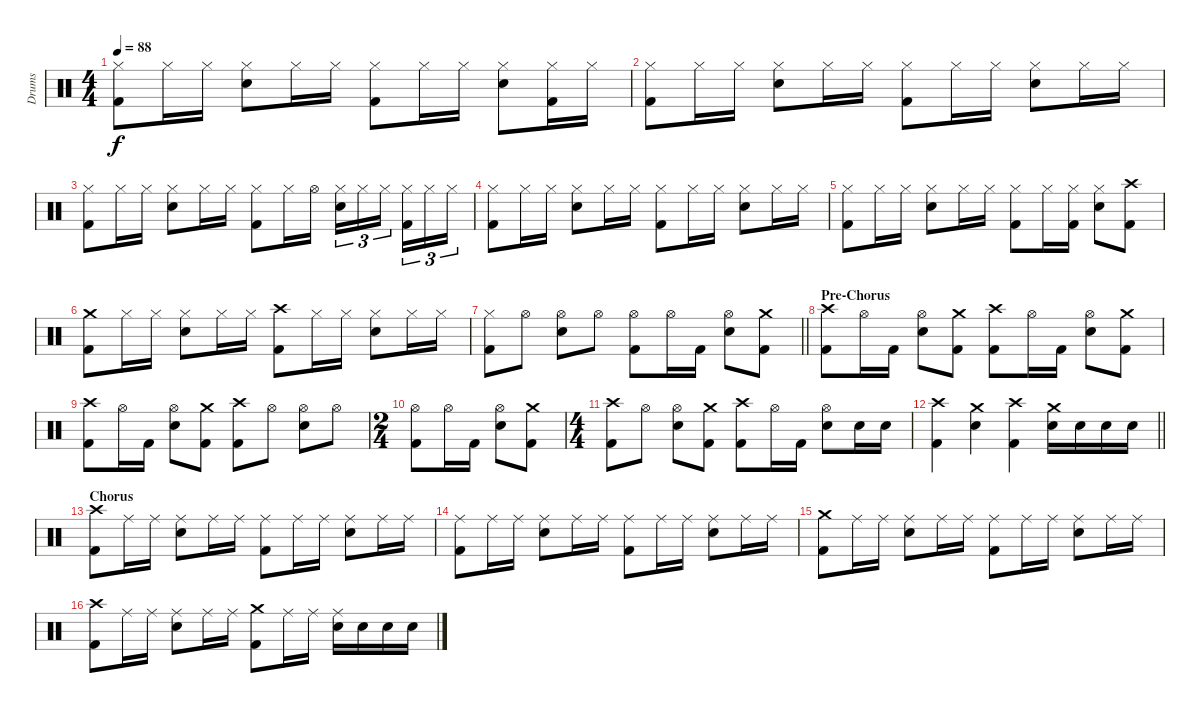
\track ("Drums" "Drums") {instrument percussion}
\staff {score}
\articulation defaults
\ts (4 4)
\tempo 88
\clef neutral
\ks c
("Hi-Hat (closed)" "Kick (hit) 2").8{dy f} "Hi-Hat (closed)".16 "Hi-Hat (closed)".16 ("Hi-Hat (closed)" "Snare (hit) 2").8 "Hi-Hat (closed)".16 "Hi-Hat (closed)".16 ("Hi-Hat (closed)" "Kick (hit) 2").8 "Hi-Hat (closed)".16 "Hi-Hat (closed)".16 ("Hi-Hat (closed)" "Snare (hit) 2").8 ("Hi-Hat (closed)" "Kick (hit) 2").16 "Hi-Hat (closed)".16 |
("Hi-Hat (closed)" "Kick (hit) 2").8 "Hi-Hat (closed)".16 "Hi-Hat (closed)".16 ("Hi-Hat (closed)" "Snare (hit) 2").8 "Hi-Hat (closed)".16 "Hi-Hat (closed)".16 ("Hi-Hat (closed)" "Kick (hit) 2").8 "Hi-Hat (closed)".16 "Hi-Hat (closed)".16 ("Hi-Hat (closed)" "Snare (hit) 2").8 "Hi-Hat (closed)".16 "Hi-Hat (closed)".16 |
("Hi-Hat (closed)" "Kick (hit) 2").8 "Hi-Hat (closed)".16 "Hi-Hat (closed)".16 ("Hi-Hat (closed)" "Snare (hit) 2").8 "Hi-Hat (closed)".16 "Hi-Hat (closed)".16 ("Hi-Hat (closed)" "Kick (hit) 2").8 "Hi-Hat (closed)".16 "Hi-Hat (open)".16 ("Hi-Hat (closed)" "Snare (hit) 2").16{tu (3 2)} "Hi-Hat (closed)".16{tu (3 2)} "Hi-Hat (closed)".16{tu (3 2) beam splitsecondary} ("Hi-Hat (closed)" "Kick (hit) 2").16{tu (3 2)} "Hi-Hat (closed)".16{tu (3 2)} "Hi-Hat (closed)".16{tu (3 2)} |
("Hi-Hat (closed)" "Kick (hit) 2").8 "Hi-Hat (closed)".16 "Hi-Hat (closed)".16 ("Hi-Hat (closed)" "Snare (hit) 2").8 "Hi-Hat (closed)".16 "Hi-Hat (closed)".16 ("Hi-Hat (closed)" "Kick (hit) 2").8 "Hi-Hat (closed)".16 "Hi-Hat (closed)".16 ("Hi-Hat (closed)" "Snare (hit) 2").8 "Hi-Hat (closed)".16 "Hi-Hat (closed)".16 |
("Hi-Hat (closed)" "Kick (hit) 2").8 "Hi-Hat (closed)".16 "Hi-Hat (closed)".16 ("Hi-Hat (closed)" "Snare (hit) 2").8 "Hi-Hat (closed)".16 "Hi-Hat (closed)".16 ("Hi-Hat (closed)" "Kick (hit) 2").8 "Hi-Hat (closed)".16 ("Hi-Hat (closed)" "Kick (hit) 2").16 ("Hi-Hat (closed)" "Snare (hit) 2").8 ("Crash high (hit)" "Kick (hit) 2").8 |
("Crash medium (hit)" "Kick (hit) 2").8 "Hi-Hat (closed)".16 "Hi-Hat (closed)".16 ("Hi-Hat (closed)" "Snare (hit) 2").8 "Hi-Hat (closed)".16 "Hi-Hat (closed)".16 ("Crash high (hit)" "Kick (hit) 2").8 "Hi-Hat (closed)".16 "Hi-Hat (closed)".16 ("Hi-Hat (closed)" "Snare (hit) 2").8 "Hi-Hat (closed)".16 "Hi-Hat (closed)".16 |
\barLineRight lightlight
("Hi-Hat (closed)" "Kick (hit) 2").8 "Hi-Hat (open)".8 ("Hi-Hat (open)" "Snare (hit) 2").8 "Hi-Hat (open)".8 ("Hi-Hat (open)" "Kick (hit) 2").8 "Hi-Hat (open)".16 "Kick (hit) 2".16 ("Hi-Hat (open)" "Snare (hit) 2").8 ("Crash medium (hit)" "Kick (hit) 2").8 |
\section ("" "Pre-Chorus")
("Crash high (hit)" "Kick (hit) 2").8 "Hi-Hat (open)".16 "Kick (hit) 2".16 ("Hi-Hat (open)" "Snare (hit) 2").8 ("Crash medium (hit)" "Kick (hit) 2").8 ("Crash high (hit)" "Kick (hit) 2").8 "Hi-Hat (open)".16 "Kick (hit) 2".16 ("Hi-Hat (open)" "Snare (hit) 2").8 ("Crash medium (hit)" "Kick (hit) 2").8 |
("Crash high (hit)" "Kick (hit) 2").8 "Hi-Hat (open)".16 "Kick (hit) 2".16 ("Hi-Hat (open)" "Snare (hit) 2").8 ("Crash medium (hit)" "Kick (hit) 2").8 ("Crash high (hit)" "Kick (hit) 2").8 "Hi-Hat (open)".8 ("Hi-Hat (open)" "Snare (hit) 2").8 "Hi-Hat (open)".8 |
\ts (2 4)
("Hi-Hat (open)" "Kick (hit) 2").8 "Hi-Hat (open)".16 "Kick (hit) 2".16 ("Hi-Hat (open)" "Snare (hit) 2").8 ("Crash medium (hit)" "Kick (hit) 2").8 |
\ts (4 4)
("Crash high (hit)" "Kick (hit) 2").8 "Hi-Hat (open)".8 ("Hi-Hat (open)" "Snare (hit) 2").8 ("Crash medium (hit)" "Kick (hit) 2").8 ("Crash high (hit)" "Kick (hit) 2").8 "Hi-Hat (open)".16 "Kick (hit) 2".16 ("Hi-Hat (open)" "Snare (hit) 2").8 "Snare (hit) 2".16 "Snare (hit) 2".16 |
\barLineRight lightlight
("Crash high (hit)" "Kick (hit) 2").4 ("Crash medium (hit)" "Snare (hit) 2").4 ("Crash high (hit)" "Kick (hit) 2").4 ("Crash medium (hit)" "Snare (hit) 2").16 "Snare (hit) 2".16 "Snare (hit) 2".16 "Snare (hit) 2".16 |
\section ("" "Chorus")
("Crash high (hit)" "Kick (hit) 2").8 "Ride (middle)".16 "Ride (middle)".16 ("Ride (middle)" "Snare (hit) 2").8 "Ride (middle)".16 "Ride (middle)".16 ("Ride (middle)" "Kick (hit) 2").8 "Ride (middle)".16 "Ride (middle)".16 ("Ride (middle)" "Snare (hit) 2").8 "Ride (middle)".16 "Ride (middle)".16 |
("Ride (middle)" "Kick (hit) 2").8 "Ride (middle)".16 "Ride (middle)".16 ("Ride (middle)" "Snare (hit) 2").8 "Ride (middle)".16 "Ride (middle)".16 ("Ride (middle)" "Kick (hit) 2").8 "Ride (middle)".16 "Ride (middle)".16 ("Ride (middle)" "Snare (hit) 2").8 "Ride (middle)".16 "Ride (middle)".16 |
("Crash medium (hit)" "Kick (hit) 2").8 "Ride (middle)".16 "Ride (middle)".16 ("Ride (middle)" "Snare (hit) 2").8 "Ride (middle)".16 "Ride (middle)".16 ("Ride (middle)" "Kick (hit) 2").8 "Ride (middle)".16 "Ride (middle)".16 ("Ride (middle)" "Snare (hit) 2").8 "Ride (middle)".16 "Ride (middle)".16 |
("Crash high (hit)" "Kick (hit) 2").8 "Ride (middle)".16 "Ride (middle)".16 ("Ride (middle)" "Snare (hit) 2").8 "Ride (middle)".16 "Ride (middle)".16 ("Crash medium (hit)" "Kick (hit) 2").8 "Ride (middle)".16 "Ride (middle)".16 ("Ride (middle)" "Snare (hit) 2").16 "Snare (hit) 2".16 "Snare (hit) 2".16 "Snare (hit) 2".16
